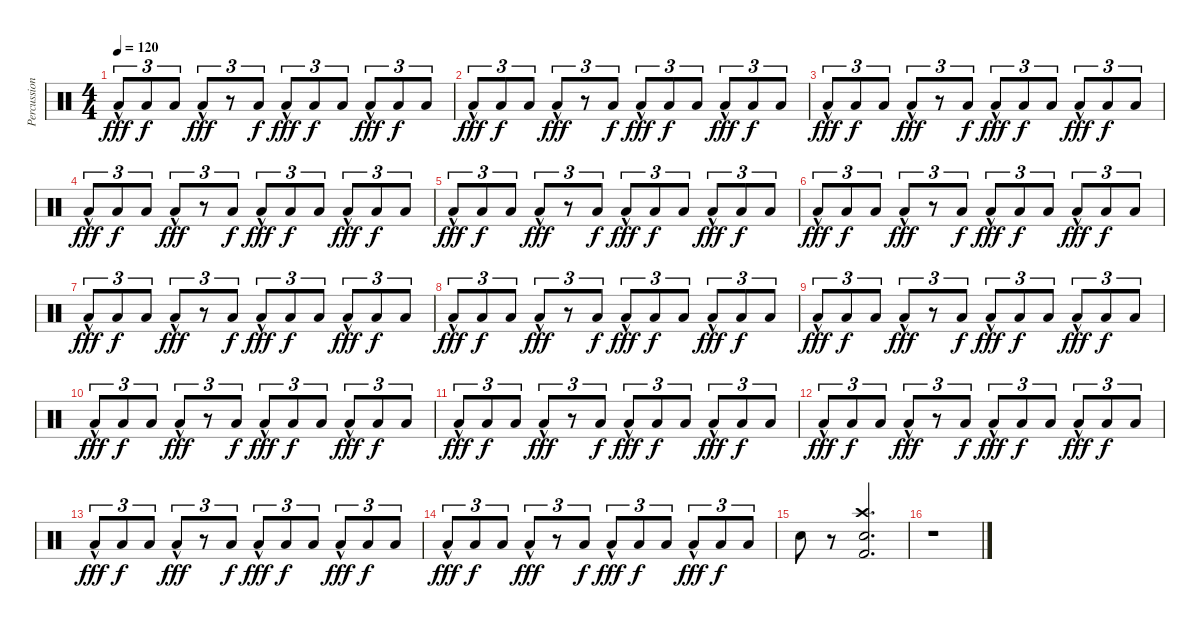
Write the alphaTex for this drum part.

\track ("Percussion" "Percussion") {instrument percussion}
\staff {score}
\articulation defaults
\ts (4 4)
\tempo 120
\clef neutral
\ks c "Low Floor Tom (hit)"{hac}.8{tu (3 2) dy fff} "Low Floor Tom (hit)".8{tu (3 2) dy f} "Low Floor Tom (hit)".8{tu (3 2)} "Low Floor Tom (hit)"{hac}.8{tu (3 2) dy fff}
r.8{tu (3 2)} "Low Floor Tom (hit)".8{tu (3 2) dy f} "Low Floor Tom (hit)"{hac}.8{tu (3 2) dy fff} "Low Floor Tom (hit)".8{tu (3 2) dy f} "Low Floor Tom (hit)".8{tu (3 2)} "Low Floor Tom (hit)"{hac}.8{tu (3 2) dy fff} "Low Floor Tom (hit)".8{tu (3 2) dy f} "Low Floor Tom (hit)".8{tu (3 2)} |
"Low Floor Tom (hit)"{hac}.8{tu (3 2) dy fff} "Low Floor Tom (hit)".8{tu (3 2) dy f} "Low Floor Tom (hit)".8{tu (3 2)} "Low Floor Tom (hit)"{hac}.8{tu (3 2) dy fff} r.8{tu (3 2)} "Low Floor Tom (hit)".8{tu (3 2) dy f} "Low Floor Tom (hit)"{hac}.8{tu (3 2) dy fff} "Low Floor Tom (hit)".8{tu (3 2) dy f} "Low Floor Tom (hit)".8{tu (3 2)} "Low Floor Tom (hit)"{hac}.8{tu (3 2) dy fff} "Low Floor Tom (hit)".8{tu (3 2) dy f} "Low Floor Tom (hit)".8{tu (3 2)} |
"Low Floor Tom (hit)"{hac}.8{tu (3 2) dy fff} "Low Floor Tom (hit)".8{tu (3 2) dy f} "Low Floor Tom (hit)".8{tu (3 2)} "Low Floor Tom (hit)"{hac}.8{tu (3 2) dy fff} r.8{tu (3 2)} "Low Floor Tom (hit)".8{tu (3 2) dy f} "Low Floor Tom (hit)"{hac}.8{tu (3 2) dy fff} "Low Floor Tom (hit)".8{tu (3 2) dy f} "Low Floor Tom (hit)".8{tu (3 2)} "Low Floor Tom (hit)"{hac}.8{tu (3 2) dy fff} "Low Floor Tom (hit)".8{tu (3 2) dy f} "Low Floor Tom (hit)".8{tu (3 2)} |
"Low Floor Tom (hit)"{hac}.8{tu (3 2) dy fff} "Low Floor Tom (hit)".8{tu (3 2) dy f} "Low Floor Tom (hit)".8{tu (3 2)} "Low Floor Tom (hit)"{hac}.8{tu (3 2) dy fff} r.8{tu (3 2)} "Low Floor Tom (hit)".8{tu (3 2) dy f} "Low Floor Tom (hit)"{hac}.8{tu (3 2) dy fff} "Low Floor Tom (hit)".8{tu (3 2) dy f} "Low Floor Tom (hit)".8{tu (3 2)} "Low Floor Tom (hit)"{hac}.8{tu (3 2) dy fff} "Low Floor Tom (hit)".8{tu (3 2) dy f} "Low Floor Tom (hit)".8{tu (3 2)} |
"Low Floor Tom (hit)"{hac}.8{tu (3 2) dy fff} "Low Floor Tom (hit)".8{tu (3 2) dy f} "Low Floor Tom (hit)".8{tu (3 2)} "Low Floor Tom (hit)"{hac}.8{tu (3 2) dy fff} r.8{tu (3 2)} "Low Floor Tom (hit)".8{tu (3 2) dy f} "Low Floor Tom (hit)"{hac}.8{tu (3 2) dy fff} "Low Floor Tom (hit)".8{tu (3 2) dy f} "Low Floor Tom (hit)".8{tu (3 2)} "Low Floor Tom (hit)"{hac}.8{tu (3 2) dy fff} "Low Floor Tom (hit)".8{tu (3 2) dy f} "Low Floor Tom (hit)".8{tu (3 2)} |
"Low Floor Tom (hit)"{hac}.8{tu (3 2) dy fff} "Low Floor Tom (hit)".8{tu (3 2) dy f} "Low Floor Tom (hit)".8{tu (3 2)} "Low Floor Tom (hit)"{hac}.8{tu (3 2) dy fff} r.8{tu (3 2)} "Low Floor Tom (hit)".8{tu (3 2) dy f} "Low Floor Tom (hit)"{hac}.8{tu (3 2) dy fff} "Low Floor Tom (hit)".8{tu (3 2) dy f} "Low Floor Tom (hit)".8{tu (3 2)} "Low Floor Tom (hit)"{hac}.8{tu (3 2) dy fff} "Low Floor Tom (hit)".8{tu (3 2) dy f} "Low Floor Tom (hit)".8{tu (3 2)} |
"Low Floor Tom (hit)"{hac}.8{tu (3 2) dy fff} "Low Floor Tom (hit)".8{tu (3 2) dy f} "Low Floor Tom (hit)".8{tu (3 2)} "Low Floor Tom (hit)"{hac}.8{tu (3 2) dy fff} r.8{tu (3 2)} "Low Floor Tom (hit)".8{tu (3 2) dy f} "Low Floor Tom (hit)"{hac}.8{tu (3 2) dy fff} "Low Floor Tom (hit)".8{tu (3 2) dy f} "Low Floor Tom (hit)".8{tu (3 2)} "Low Floor Tom (hit)"{hac}.8{tu (3 2) dy fff} "Low Floor Tom (hit)".8{tu (3 2) dy f} "Low Floor Tom (hit)".8{tu (3 2)} |
"Low Floor Tom (hit)"{hac}.8{tu (3 2) dy fff} "Low Floor Tom (hit)".8{tu (3 2) dy f} "Low Floor Tom (hit)".8{tu (3 2)} "Low Floor Tom (hit)"{hac}.8{tu (3 2) dy fff} r.8{tu (3 2)} "Low Floor Tom (hit)".8{tu (3 2) dy f} "Low Floor Tom (hit)"{hac}.8{tu (3 2) dy fff} "Low Floor Tom (hit)".8{tu (3 2) dy f} "Low Floor Tom (hit)".8{tu (3 2)} "Low Floor Tom (hit)"{hac}.8{tu (3 2) dy fff} "Low Floor Tom (hit)".8{tu (3 2) dy f} "Low Floor Tom (hit)".8{tu (3 2)} |
"Low Floor Tom (hit)"{hac}.8{tu (3 2) dy fff} "Low Floor Tom (hit)".8{tu (3 2) dy f} "Low Floor Tom (hit)".8{tu (3 2)} "Low Floor Tom (hit)"{hac}.8{tu (3 2) dy fff} r.8{tu (3 2)} "Low Floor Tom (hit)".8{tu (3 2) dy f} "Low Floor Tom (hit)"{hac}.8{tu (3 2) dy fff} "Low Floor Tom (hit)".8{tu (3 2) dy f} "Low Floor Tom (hit)".8{tu (3 2)} "Low Floor Tom (hit)"{hac}.8{tu (3 2) dy fff} "Low Floor Tom (hit)".8{tu (3 2) dy f} "Low Floor Tom (hit)".8{tu (3 2)} |
"Low Floor Tom (hit)"{hac}.8{tu (3 2) dy fff} "Low Floor Tom (hit)".8{tu (3 2) dy f} "Low Floor Tom (hit)".8{tu (3 2)} "Low Floor Tom (hit)"{hac}.8{tu (3 2) dy fff} r.8{tu (3 2)} "Low Floor Tom (hit)".8{tu (3 2) dy f} "Low Floor Tom (hit)"{hac}.8{tu (3 2) dy fff} "Low Floor Tom (hit)".8{tu (3 2) dy f} "Low Floor Tom (hit)".8{tu (3 2)} "Low Floor Tom (hit)"{hac}.8{tu (3 2) dy fff} "Low Floor Tom (hit)".8{tu (3 2) dy f} "Low Floor Tom (hit)".8{tu (3 2)} |
"Low Floor Tom (hit)"{hac}.8{tu (3 2) dy fff} "Low Floor Tom (hit)".8{tu (3 2) dy f} "Low Floor Tom (hit)".8{tu (3 2)} "Low Floor Tom (hit)"{hac}.8{tu (3 2) dy fff} r.8{tu (3 2)} "Low Floor Tom (hit)".8{tu (3 2) dy f} "Low Floor Tom (hit)"{hac}.8{tu (3 2) dy fff} "Low Floor Tom (hit)".8{tu (3 2) dy f} "Low Floor Tom (hit)".8{tu (3 2)} "Low Floor Tom (hit)"{hac}.8{tu (3 2) dy fff} "Low Floor Tom (hit)".8{tu (3 2) dy f} "Low Floor Tom (hit)".8{tu (3 2)} |
"Low Floor Tom (hit)"{hac}.8{tu (3 2) dy fff} "Low Floor Tom (hit)".8{tu (3 2) dy f} "Low Floor Tom (hit)".8{tu (3 2)} "Low Floor Tom (hit)"{hac}.8{tu (3 2) dy fff} r.8{tu (3 2)} "Low Floor Tom (hit)".8{tu (3 2) dy f} "Low Floor Tom (hit)"{hac}.8{tu (3 2) dy fff} "Low Floor Tom (hit)".8{tu (3 2) dy f} "Low Floor Tom (hit)".8{tu (3 2)} "Low Floor Tom (hit)"{hac}.8{tu (3 2) dy fff} "Low Floor Tom (hit)".8{tu (3 2) dy f} "Low Floor Tom (hit)".8{tu (3 2)} |
"Low Floor Tom (hit)"{hac}.8{tu (3 2) dy fff} "Low Floor Tom (hit)".8{tu (3 2) dy f} "Low Floor Tom (hit)".8{tu (3 2)} "Low Floor Tom (hit)"{hac}.8{tu (3 2) dy fff} r.8{tu (3 2)} "Low Floor Tom (hit)".8{tu (3 2) dy f} "Low Floor Tom (hit)"{hac}.8{tu (3 2) dy fff} "Low Floor Tom (hit)".8{tu (3 2) dy f} "Low Floor Tom (hit)".8{tu (3 2)} "Low Floor Tom (hit)"{hac}.8{tu (3 2) dy fff} "Low Floor Tom (hit)".8{tu (3 2) dy f} "Low Floor Tom (hit)".8{tu (3 2)} |
"Low Floor Tom (hit)"{hac}.8{tu (3 2) dy fff} "Low Floor Tom (hit)".8{tu (3 2) dy f} "Low Floor Tom (hit)".8{tu (3 2)} "Low Floor Tom (hit)"{hac}.8{tu (3 2) dy fff} r.8{tu (3 2)} "Low Floor Tom (hit)".8{tu (3 2) dy f} "Low Floor Tom (hit)"{hac}.8{tu (3 2) dy fff} "Low Floor Tom (hit)".8{tu (3 2) dy f} "Low Floor Tom (hit)".8{tu (3 2)} "Low Floor Tom (hit)"{hac}.8{tu (3 2) dy fff} "Low Floor Tom (hit)".8{tu (3 2) dy f} "Low Floor Tom (hit)".8{tu (3 2)} |
"Snare (hit) 2".8 r.8 ("Crash high (hit)" "Snare (hit) 2" "Kick (hit) 2").2{d} |
r.1
